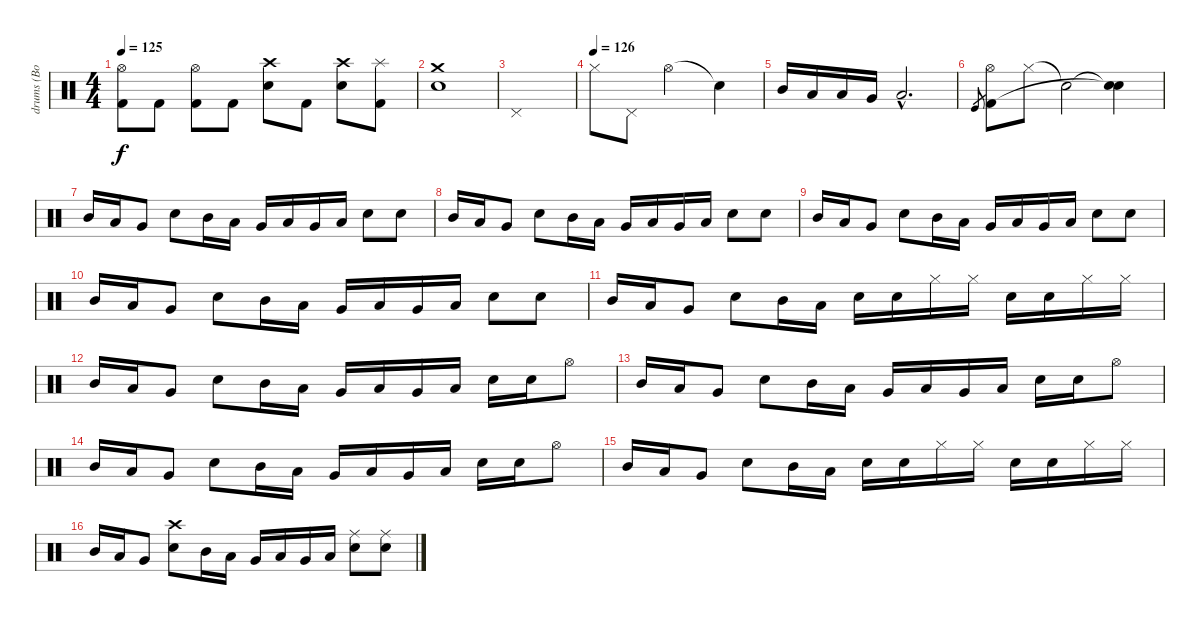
\track (" drums (Bob Bryar)" " drums (Bo") {instrument percussion}
\staff {score}
\articulation defaults
\ts (4 4)
\tempo 125
\clef neutral
\ks c
("Hi-Hat (open)" "Kick (hit) 2").8{dy f} "Kick (hit) 2".8 ("Hi-Hat (open)" "Kick (hit) 2").8 "Kick (hit) 2".8 ("Crash high (hit)" "Snare (hit) 2").8 "Kick (hit) 2".8 ("Crash high (hit)" "Snare (hit) 2").8 ("Splash (hit)" "Kick (hit) 2").8 |
("Crash medium (hit)" "Snare (hit) 2").1 |
"Pedal Hi-Hat (hit)".1 |
\tempo (126)
"Hi-Hat (closed)".8 "Pedal Hi-Hat (hit)".8 "Hi-Hat (open)".2 "Snare (hit)"{t}.4 |
"Mid Tom (hit)".16 "Low Tom (hit)".16 "Low Tom (hit)".16 "Very Low Tom (hit)".16 "Low Floor Tom (hit)"{hac}.2{d} |
"Kick (hit)".8{gr} ("Hi-Hat (open)" "Kick (hit) 2").8 "Hi-Hat (closed)".8 "Snare (hit)"{t}.2 ("Snare (hit)"{t} "Snare (hit)"{t}).4 |
"Mid Tom (hit)".16 "Low Tom (hit)".16 "Very Low Tom (hit)".8 "Electric Snare (hit)".8 "Mid Tom (hit)".16 "Low Tom (hit)".16 "Very Low Tom (hit)".16 "Low Floor Tom (hit)".16 "Very Low Tom (hit)".16 "Low Tom (hit)".16 "Electric Snare (hit)".8 "Electric Snare (hit)".8 |
"Mid Tom (hit)".16 "Low Tom (hit)".16 "Very Low Tom (hit)".8 "Electric Snare (hit)".8 "Mid Tom (hit)".16 "Low Tom (hit)".16 "Very Low Tom (hit)".16 "Low Floor Tom (hit)".16 "Very Low Tom (hit)".16 "Low Tom (hit)".16 "Electric Snare (hit)".8 "Electric Snare (hit)".8 |
"Mid Tom (hit)".16 "Low Tom (hit)".16 "Very Low Tom (hit)".8 "Electric Snare (hit)".8 "Mid Tom (hit)".16 "Low Tom (hit)".16 "Very Low Tom (hit)".16 "Low Floor Tom (hit)".16 "Very Low Tom (hit)".16 "Low Tom (hit)".16 "Electric Snare (hit)".8 "Electric Snare (hit)".8 |
"Mid Tom (hit)".16 "Low Tom (hit)".16 "Very Low Tom (hit)".8 "Electric Snare (hit)".8 "Mid Tom (hit)".16 "Low Tom (hit)".16 "Very Low Tom (hit)".16 "Low Floor Tom (hit)".16 "Very Low Tom (hit)".16 "Low Tom (hit)".16 "Electric Snare (hit)".8 "Electric Snare (hit)".8 |
"Mid Tom (hit)".16 "Low Tom (hit)".16 "Very Low Tom (hit)".8 "Electric Snare (hit)".8 "Mid Tom (hit)".16 "Low Tom (hit)".16 "Electric Snare (hit)".16 "Electric Snare (hit)".16 "Hi-Hat (closed)".16 "Hi-Hat (closed)".16 "Electric Snare (hit)".16 "Electric Snare (hit)".16 "Hi-Hat (closed)".16 "Hi-Hat (closed)".16 |
"Mid Tom (hit)".16 "Low Tom (hit)".16 "Very Low Tom (hit)".8 "Electric Snare (hit)".8 "Mid Tom (hit)".16 "Low Tom (hit)".16 "Very Low Tom (hit)".16 "Low Floor Tom (hit)".16 "Very Low Tom (hit)".16 "Low Tom (hit)".16 "Electric Snare (hit)".16 "Electric Snare (hit)".16 "Hi-Hat (open)".8 |
"Mid Tom (hit)".16 "Low Tom (hit)".16 "Very Low Tom (hit)".8 "Electric Snare (hit)".8 "Mid Tom (hit)".16 "Low Tom (hit)".16 "Very Low Tom (hit)".16 "Low Floor Tom (hit)".16 "Very Low Tom (hit)".16 "Low Tom (hit)".16 "Electric Snare (hit)".16 "Electric Snare (hit)".16 "Hi-Hat (open)".8 |
"Mid Tom (hit)".16 "Low Tom (hit)".16 "Very Low Tom (hit)".8 "Electric Snare (hit)".8 "Mid Tom (hit)".16 "Low Tom (hit)".16 "Very Low Tom (hit)".16 "Low Floor Tom (hit)".16 "Very Low Tom (hit)".16 "Low Tom (hit)".16 "Electric Snare (hit)".16 "Electric Snare (hit)".16 "Hi-Hat (open)".8 |
"Mid Tom (hit)".16 "Low Tom (hit)".16 "Very Low Tom (hit)".8 "Electric Snare (hit)".8 "Mid Tom (hit)".16 "Low Tom (hit)".16 "Electric Snare (hit)".16 "Electric Snare (hit)".16 "Hi-Hat (closed)".16 "Hi-Hat (closed)".16 "Electric Snare (hit)".16 "Electric Snare (hit)".16 "Hi-Hat (closed)".16 "Hi-Hat (closed)".16 |
"Mid Tom (hit)".16 "Low Tom (hit)".16 "Very Low Tom (hit)".8 ("Crash high (hit)" "Electric Snare (hit)").8 "Mid Tom (hit)".16 "Low Tom (hit)".16 "Very Low Tom (hit)".16 "Low Floor Tom (hit)".16 "Very Low Tom (hit)".16 "Low Tom (hit)".16 ("Ride (middle)" "Electric Snare (hit)").8 ("Ride (middle)" "Electric Snare (hit)").8
